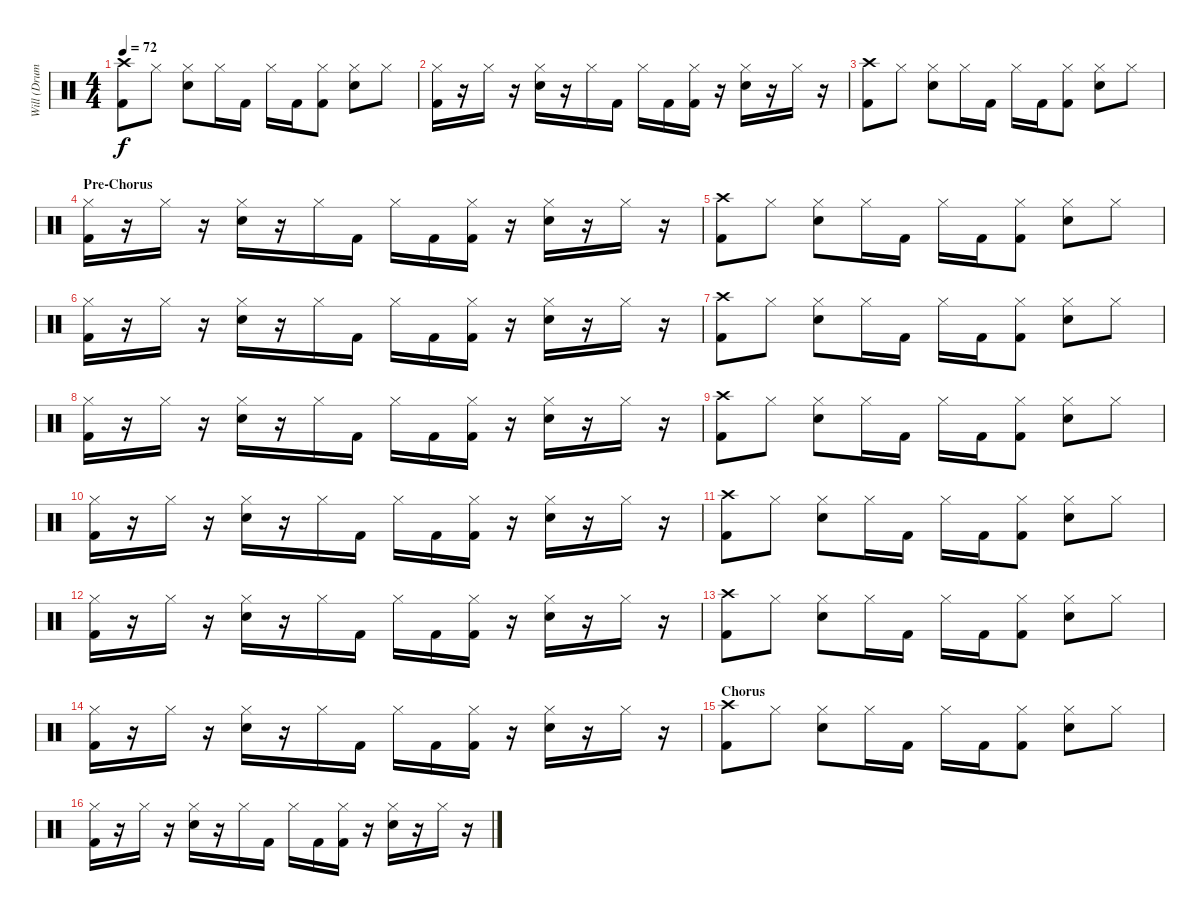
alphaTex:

\track ("Will (Drums)" "Will (Drum") {instrument percussion}
\staff {score}
\articulation defaults
\ts (4 4)
\tempo 72
\clef neutral
\ks c
("Crash high (hit)" "Kick (hit) 2").8{dy f} "Hi-Hat (closed)".8 ("Hi-Hat (closed)" "Snare (hit) 2").8 "Hi-Hat (closed)".16 "Kick (hit) 2".16 "Hi-Hat (closed)".16 "Kick (hit) 2".16 ("Hi-Hat (closed)" "Kick (hit) 2").8 ("Hi-Hat (closed)" "Snare (hit) 2").8 "Hi-Hat (closed)".8 |
("Hi-Hat (closed)" "Kick (hit) 2").16 r.16 "Hi-Hat (closed)".16 r.16 ("Hi-Hat (closed)" "Snare (hit) 2").16 r.16 "Hi-Hat (closed)".16 "Kick (hit) 2".16 "Hi-Hat (closed)".16 "Kick (hit) 2".16 ("Hi-Hat (closed)" "Kick (hit) 2").16 r.16 ("Hi-Hat (closed)" "Snare (hit) 2").16 r.16 "Hi-Hat (closed)".16 r.16 |
("Crash high (hit)" "Kick (hit) 2").8 "Hi-Hat (closed)".8 ("Hi-Hat (closed)" "Snare (hit) 2").8 "Hi-Hat (closed)".16 "Kick (hit) 2".16 "Hi-Hat (closed)".16 "Kick (hit) 2".16 ("Hi-Hat (closed)" "Kick (hit) 2").8 ("Hi-Hat (closed)" "Snare (hit) 2").8 "Hi-Hat (closed)".8 |
\section ("" "Pre-Chorus")
("Hi-Hat (closed)" "Kick (hit) 2").16 r.16 "Hi-Hat (closed)".16 r.16 ("Hi-Hat (closed)" "Snare (hit) 2").16 r.16 "Hi-Hat (closed)".16 "Kick (hit) 2".16 "Hi-Hat (closed)".16 "Kick (hit) 2".16 ("Hi-Hat (closed)" "Kick (hit) 2").16 r.16 ("Hi-Hat (closed)" "Snare (hit) 2").16 r.16 "Hi-Hat (closed)".16 r.16 |
("Crash high (hit)" "Kick (hit) 2").8 "Hi-Hat (closed)".8 ("Hi-Hat (closed)" "Snare (hit) 2").8 "Hi-Hat (closed)".16 "Kick (hit) 2".16 "Hi-Hat (closed)".16 "Kick (hit) 2".16 ("Hi-Hat (closed)" "Kick (hit) 2").8 ("Hi-Hat (closed)" "Snare (hit) 2").8 "Hi-Hat (closed)".8 |
("Hi-Hat (closed)" "Kick (hit) 2").16 r.16 "Hi-Hat (closed)".16 r.16 ("Hi-Hat (closed)" "Snare (hit) 2").16 r.16 "Hi-Hat (closed)".16 "Kick (hit) 2".16 "Hi-Hat (closed)".16 "Kick (hit) 2".16 ("Hi-Hat (closed)" "Kick (hit) 2").16 r.16 ("Hi-Hat (closed)" "Snare (hit) 2").16 r.16 "Hi-Hat (closed)".16 r.16 |
("Crash high (hit)" "Kick (hit) 2").8 "Hi-Hat (closed)".8 ("Hi-Hat (closed)" "Snare (hit) 2").8 "Hi-Hat (closed)".16 "Kick (hit) 2".16 "Hi-Hat (closed)".16 "Kick (hit) 2".16 ("Hi-Hat (closed)" "Kick (hit) 2").8 ("Hi-Hat (closed)" "Snare (hit) 2").8 "Hi-Hat (closed)".8 |
("Hi-Hat (closed)" "Kick (hit) 2").16 r.16 "Hi-Hat (closed)".16 r.16 ("Hi-Hat (closed)" "Snare (hit) 2").16 r.16 "Hi-Hat (closed)".16 "Kick (hit) 2".16 "Hi-Hat (closed)".16 "Kick (hit) 2".16 ("Hi-Hat (closed)" "Kick (hit) 2").16 r.16 ("Hi-Hat (closed)" "Snare (hit) 2").16 r.16 "Hi-Hat (closed)".16 r.16 |
("Crash high (hit)" "Kick (hit) 2").8 "Hi-Hat (closed)".8 ("Hi-Hat (closed)" "Snare (hit) 2").8 "Hi-Hat (closed)".16 "Kick (hit) 2".16 "Hi-Hat (closed)".16 "Kick (hit) 2".16 ("Hi-Hat (closed)" "Kick (hit) 2").8 ("Hi-Hat (closed)" "Snare (hit) 2").8 "Hi-Hat (closed)".8 |
("Hi-Hat (closed)" "Kick (hit) 2").16 r.16 "Hi-Hat (closed)".16 r.16 ("Hi-Hat (closed)" "Snare (hit) 2").16 r.16 "Hi-Hat (closed)".16 "Kick (hit) 2".16 "Hi-Hat (closed)".16 "Kick (hit) 2".16 ("Hi-Hat (closed)" "Kick (hit) 2").16 r.16 ("Hi-Hat (closed)" "Snare (hit) 2").16 r.16 "Hi-Hat (closed)".16 r.16 |
("Crash high (hit)" "Kick (hit) 2").8 "Hi-Hat (closed)".8 ("Hi-Hat (closed)" "Snare (hit) 2").8 "Hi-Hat (closed)".16 "Kick (hit) 2".16 "Hi-Hat (closed)".16 "Kick (hit) 2".16 ("Hi-Hat (closed)" "Kick (hit) 2").8 ("Hi-Hat (closed)" "Snare (hit) 2").8 "Hi-Hat (closed)".8 |
("Hi-Hat (closed)" "Kick (hit) 2").16 r.16 "Hi-Hat (closed)".16 r.16 ("Hi-Hat (closed)" "Snare (hit) 2").16 r.16 "Hi-Hat (closed)".16 "Kick (hit) 2".16 "Hi-Hat (closed)".16 "Kick (hit) 2".16 ("Hi-Hat (closed)" "Kick (hit) 2").16 r.16 ("Hi-Hat (closed)" "Snare (hit) 2").16 r.16 "Hi-Hat (closed)".16 r.16 |
("Crash high (hit)" "Kick (hit) 2").8 "Hi-Hat (closed)".8 ("Hi-Hat (closed)" "Snare (hit) 2").8 "Hi-Hat (closed)".16 "Kick (hit) 2".16 "Hi-Hat (closed)".16 "Kick (hit) 2".16 ("Hi-Hat (closed)" "Kick (hit) 2").8 ("Hi-Hat (closed)" "Snare (hit) 2").8 "Hi-Hat (closed)".8 |
("Hi-Hat (closed)" "Kick (hit) 2").16 r.16 "Hi-Hat (closed)".16 r.16 ("Hi-Hat (closed)" "Snare (hit) 2").16 r.16 "Hi-Hat (closed)".16 "Kick (hit) 2".16 "Hi-Hat (closed)".16 "Kick (hit) 2".16 ("Hi-Hat (closed)" "Kick (hit) 2").16 r.16 ("Hi-Hat (closed)" "Snare (hit) 2").16 r.16 "Hi-Hat (closed)".16 r.16 |
\section ("" "Chorus")
("Crash high (hit)" "Kick (hit) 2").8 "Hi-Hat (closed)".8 ("Hi-Hat (closed)" "Snare (hit) 2").8 "Hi-Hat (closed)".16 "Kick (hit) 2".16 "Hi-Hat (closed)".16 "Kick (hit) 2".16 ("Hi-Hat (closed)" "Kick (hit) 2").8 ("Hi-Hat (closed)" "Snare (hit) 2").8 "Hi-Hat (closed)".8 |
("Hi-Hat (closed)" "Kick (hit) 2").16 r.16 "Hi-Hat (closed)".16 r.16 ("Hi-Hat (closed)" "Snare (hit) 2").16 r.16 "Hi-Hat (closed)".16 "Kick (hit) 2".16 "Hi-Hat (closed)".16 "Kick (hit) 2".16 ("Hi-Hat (closed)" "Kick (hit) 2").16 r.16 ("Hi-Hat (closed)" "Snare (hit) 2").16 r.16 "Hi-Hat (closed)".16 r.16
